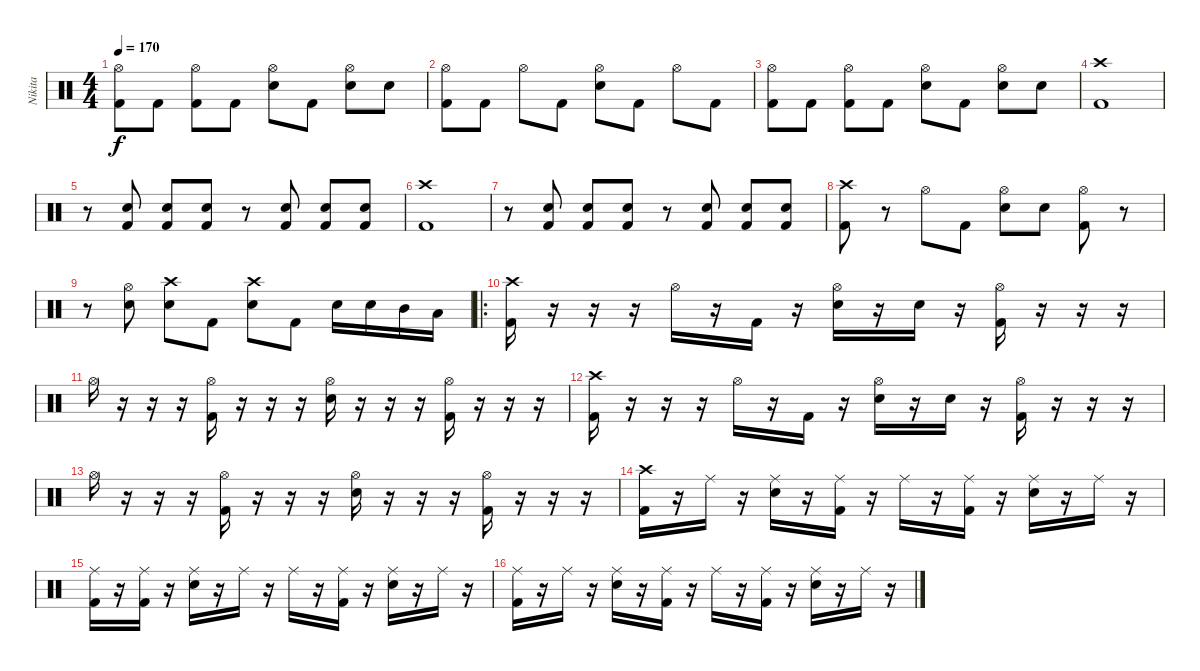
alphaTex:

\track ("Nikita" "Nikita") {instrument percussion}
\staff {score}
\articulation defaults
\ts (4 4)
\tempo 170
\clef neutral
\ks c
("Hi-Hat (open)" "Kick (hit) 2").8{dy f} "Kick (hit) 2".8 ("Hi-Hat (open)" "Kick (hit) 2").8 "Kick (hit) 2".8 ("Hi-Hat (open)" "Electric Snare (hit)").8 "Kick (hit) 2".8 ("Hi-Hat (open)" "Electric Snare (hit)").8 "Electric Snare (hit)".8 |
("Hi-Hat (open)" "Kick (hit) 2").8 "Kick (hit) 2".8 "Hi-Hat (open)".8 "Kick (hit) 2".8 ("Hi-Hat (open)" "Electric Snare (hit)").8 "Kick (hit) 2".8 "Hi-Hat (open)".8 "Kick (hit) 2".8 |
("Hi-Hat (open)" "Kick (hit) 2").8 "Kick (hit) 2".8 ("Hi-Hat (open)" "Kick (hit) 2").8 "Kick (hit) 2".8 ("Hi-Hat (open)" "Electric Snare (hit)").8 "Kick (hit) 2".8 ("Hi-Hat (open)" "Electric Snare (hit)").8 "Electric Snare (hit)".8 |
("Crash high (hit)" "Kick (hit) 2").1 |
r.8 ("Electric Snare (hit)" "Kick (hit) 2").8 ("Electric Snare (hit)" "Kick (hit) 2").8 ("Electric Snare (hit)" "Kick (hit) 2").8 r.8 ("Electric Snare (hit)" "Kick (hit) 2").8 ("Electric Snare (hit)" "Kick (hit) 2").8 ("Electric Snare (hit)" "Kick (hit) 2").8 |
("Crash high (hit)" "Kick (hit) 2").1 |
r.8 ("Electric Snare (hit)" "Kick (hit) 2").8 ("Electric Snare (hit)" "Kick (hit) 2").8 ("Electric Snare (hit)" "Kick (hit) 2").8 r.8 ("Electric Snare (hit)" "Kick (hit) 2").8 ("Electric Snare (hit)" "Kick (hit) 2").8 ("Electric Snare (hit)" "Kick (hit) 2").8 |
("Crash high (hit)" "Kick (hit) 2").8 r.8 "Hi-Hat (open)".8 "Kick (hit) 2".8 ("Hi-Hat (open)" "Electric Snare (hit)").8 "Electric Snare (hit)".8 ("Hi-Hat (open)" "Kick (hit) 2").8 r.8 |
r.8 ("Hi-Hat (open)" "Electric Snare (hit)").8 ("Crash high (hit)" "Electric Snare (hit)").8 "Kick (hit) 2".8 ("Crash high (hit)" "Electric Snare (hit)").8 "Kick (hit) 2".8 "Electric Snare (hit)".16 "Electric Snare (hit)".16 "Mid Tom (hit)".16 "Low Tom (hit)".16 |
\ro
("Crash high (hit)" "Kick (hit) 2").16 r.16 r.16 r.16 "Hi-Hat (open)".16 r.16 "Kick (hit) 2".16 r.16 ("Hi-Hat (open)" "Electric Snare (hit)").16 r.16 "Electric Snare (hit)".16 r.16 ("Hi-Hat (open)" "Kick (hit) 2").16 r.16 r.16 r.16 |
"Hi-Hat (open)".16 r.16 r.16 r.16 ("Hi-Hat (open)" "Kick (hit) 2").16 r.16 r.16 r.16 ("Hi-Hat (open)" "Electric Snare (hit)").16 r.16 r.16 r.16 ("Hi-Hat (open)" "Kick (hit) 2").16 r.16 r.16 r.16 |
("Crash high (hit)" "Kick (hit) 2").16 r.16 r.16 r.16 "Hi-Hat (open)".16 r.16 "Kick (hit) 2".16 r.16 ("Hi-Hat (open)" "Electric Snare (hit)").16 r.16 "Electric Snare (hit)".16 r.16 ("Hi-Hat (open)" "Kick (hit) 2").16 r.16 r.16 r.16 |
"Hi-Hat (open)".16 r.16 r.16 r.16 ("Hi-Hat (open)" "Kick (hit) 2").16 r.16 r.16 r.16 ("Hi-Hat (open)" "Electric Snare (hit)").16 r.16 r.16 r.16 ("Hi-Hat (open)" "Kick (hit) 2").16 r.16 r.16 r.16 |
("Crash high (hit)" "Kick (hit) 2").16 r.16 "Ride (middle)".16 r.16 ("Ride (middle)" "Electric Snare (hit)").16 r.16 ("Ride (middle)" "Kick (hit) 2").16 r.16 "Ride (middle)".16 r.16 ("Ride (middle)" "Kick (hit) 2").16 r.16 ("Ride (middle)" "Electric Snare (hit)").16 r.16 "Ride (middle)".16 r.16 |
("Ride (middle)" "Kick (hit) 2").16 r.16 ("Ride (middle)" "Kick (hit) 2").16 r.16 ("Ride (middle)" "Electric Snare (hit)").16 r.16 "Ride (middle)".16 r.16 "Ride (middle)".16 r.16 ("Ride (middle)" "Kick (hit) 2").16 r.16 ("Ride (middle)" "Electric Snare (hit)").16 r.16 "Ride (middle)".16 r.16 |
("Ride (middle)" "Kick (hit) 2").16 r.16 "Ride (middle)".16 r.16 ("Ride (middle)" "Electric Snare (hit)").16 r.16 ("Ride (middle)" "Kick (hit) 2").16 r.16 "Ride (middle)".16 r.16 ("Ride (middle)" "Kick (hit) 2").16 r.16 ("Ride (middle)" "Electric Snare (hit)").16 r.16 "Ride (middle)".16 r.16
